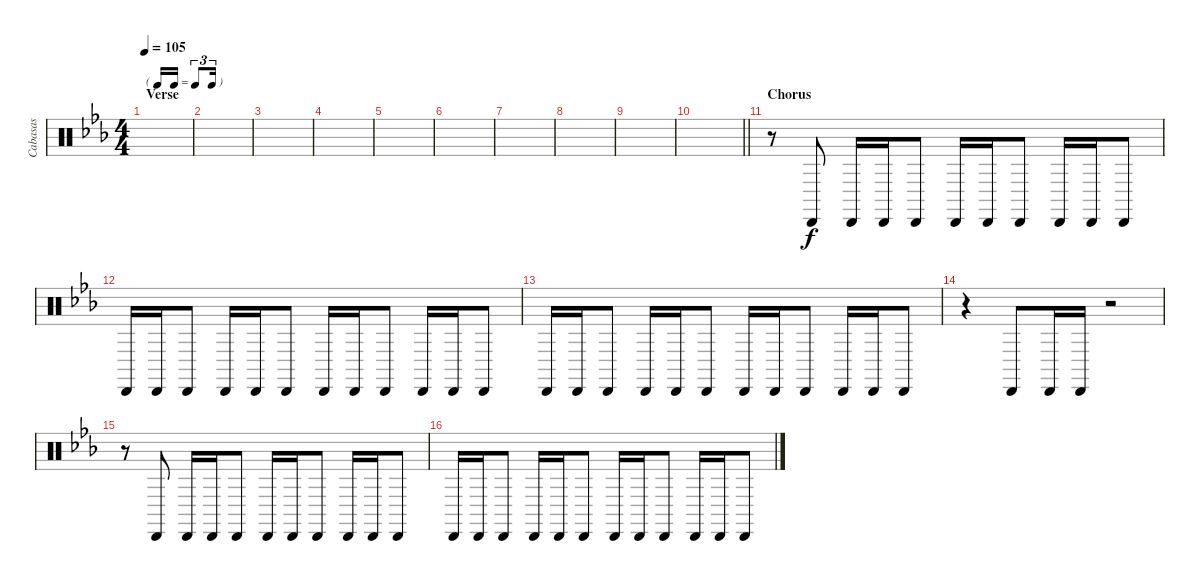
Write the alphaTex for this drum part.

\track ("Cabasas" "Cabasas") {instrument percussion}
\staff {score}
\articulation defaults
\ts (4 4)
\tf triplet16th
\section ("" "Verse")
\tempo 105
\clef neutral
\ks eb
|
|
|
|
|
|
|
|
|
\barLineRight lightlight
|
\section ("" "Chorus")
r.8 "Cabasa (hit)".8 "Cabasa (hit)".16 "Cabasa (hit)".16 "Cabasa (hit)".8 "Cabasa (hit)".16 "Cabasa (hit)".16 "Cabasa (hit)".8 "Cabasa (hit)".16 "Cabasa (hit)".16 "Cabasa (hit)".8 |
"Cabasa (hit)".16 "Cabasa (hit)".16 "Cabasa (hit)".8 "Cabasa (hit)".16 "Cabasa (hit)".16 "Cabasa (hit)".8 "Cabasa (hit)".16 "Cabasa (hit)".16 "Cabasa (hit)".8 "Cabasa (hit)".16 "Cabasa (hit)".16 "Cabasa (hit)".8 |
"Cabasa (hit)".16 "Cabasa (hit)".16 "Cabasa (hit)".8 "Cabasa (hit)".16 "Cabasa (hit)".16 "Cabasa (hit)".8 "Cabasa (hit)".16 "Cabasa (hit)".16 "Cabasa (hit)".8 "Cabasa (hit)".16 "Cabasa (hit)".16 "Cabasa (hit)".8 |
r.4 "Cabasa (hit)".8 "Cabasa (hit)".16 "Cabasa (hit)".16 r.2 |
r.8 "Cabasa (hit)".8 "Cabasa (hit)".16 "Cabasa (hit)".16 "Cabasa (hit)".8 "Cabasa (hit)".16 "Cabasa (hit)".16 "Cabasa (hit)".8 "Cabasa (hit)".16 "Cabasa (hit)".16 "Cabasa (hit)".8 |
"Cabasa (hit)".16 "Cabasa (hit)".16 "Cabasa (hit)".8 "Cabasa (hit)".16 "Cabasa (hit)".16 "Cabasa (hit)".8 "Cabasa (hit)".16 "Cabasa (hit)".16 "Cabasa (hit)".8 "Cabasa (hit)".16 "Cabasa (hit)".16 "Cabasa (hit)".8
